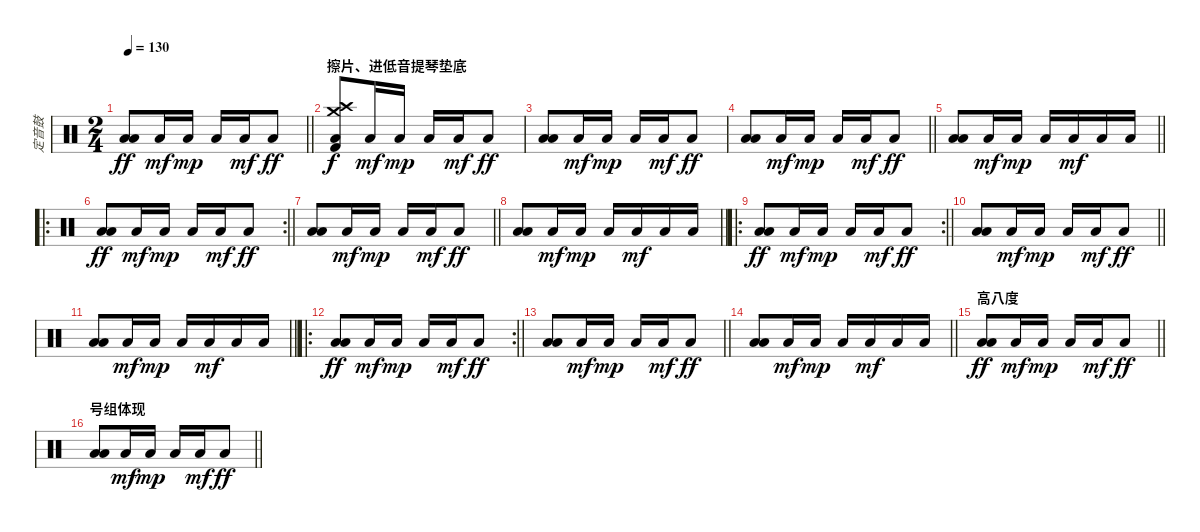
\track ("定音鼓" "定音鼓") {instrument percussion}
\staff {score}
\articulation defaults
\ts (2 4)
\tempo 130
\clef neutral
\barLineRight lightlight
\ks c
("Low Floor Tom (hit)" "Low Floor Tom (hit)").8{dy ff} "Low Floor Tom (hit)".16{dy mf} "Low Floor Tom (hit)".16{dy mp} "Low Floor Tom (hit)".16 "Low Floor Tom (hit)".16{dy mf} "Low Floor Tom (hit)".8{dy ff} |
\section ("" "擦片、进低音提琴垫底")
("Crash high (hit)" "Crash medium (hit)" "Kick (hit) 2" "Low Floor Tom (hit)").8{dy f} "Low Floor Tom (hit)".16{dy mf} "Low Floor Tom (hit)".16{dy mp} "Low Floor Tom (hit)".16 "Low Floor Tom (hit)".16{dy mf} "Low Floor Tom (hit)".8{dy ff} |
("Low Floor Tom (hit)" "Low Floor Tom (hit)").8 "Low Floor Tom (hit)".16{dy mf} "Low Floor Tom (hit)".16{dy mp} "Low Floor Tom (hit)".16 "Low Floor Tom (hit)".16{dy mf} "Low Floor Tom (hit)".8{dy ff} |
\barLineRight lightlight
("Low Floor Tom (hit)" "Low Floor Tom (hit)").8 "Low Floor Tom (hit)".16{dy mf} "Low Floor Tom (hit)".16{dy mp} "Low Floor Tom (hit)".16 "Low Floor Tom (hit)".16{dy mf} "Low Floor Tom (hit)".8{dy ff} |
\barLineRight lightlight
("Low Floor Tom (hit)" "Low Floor Tom (hit)").8 "Low Floor Tom (hit)".16{dy mf} "Low Floor Tom (hit)".16{dy mp} "Low Floor Tom (hit)".16 "Low Floor Tom (hit)".16{dy mf} "Low Floor Tom (hit)".16 "Low Floor Tom (hit)".16 |
\ro
\rc 2
\barLineRight lightlight
("Low Floor Tom (hit)" "Low Floor Tom (hit)").8{dy ff} "Low Floor Tom (hit)".16{dy mf} "Low Floor Tom (hit)".16{dy mp} "Low Floor Tom (hit)".16 "Low Floor Tom (hit)".16{dy mf} "Low Floor Tom (hit)".8{dy ff} |
\barLineRight lightlight
("Low Floor Tom (hit)" "Low Floor Tom (hit)").8 "Low Floor Tom (hit)".16{dy mf} "Low Floor Tom (hit)".16{dy mp} "Low Floor Tom (hit)".16 "Low Floor Tom (hit)".16{dy mf} "Low Floor Tom (hit)".8{dy ff} |
\barLineRight lightlight
("Low Floor Tom (hit)" "Low Floor Tom (hit)").8 "Low Floor Tom (hit)".16{dy mf} "Low Floor Tom (hit)".16{dy mp} "Low Floor Tom (hit)".16 "Low Floor Tom (hit)".16{dy mf} "Low Floor Tom (hit)".16 "Low Floor Tom (hit)".16 |
\ro
\rc 2
\barLineRight lightlight
("Low Floor Tom (hit)" "Low Floor Tom (hit)").8{dy ff} "Low Floor Tom (hit)".16{dy mf} "Low Floor Tom (hit)".16{dy mp} "Low Floor Tom (hit)".16 "Low Floor Tom (hit)".16{dy mf} "Low Floor Tom (hit)".8{dy ff} |
\barLineRight lightlight
("Low Floor Tom (hit)" "Low Floor Tom (hit)").8 "Low Floor Tom (hit)".16{dy mf} "Low Floor Tom (hit)".16{dy mp} "Low Floor Tom (hit)".16 "Low Floor Tom (hit)".16{dy mf} "Low Floor Tom (hit)".8{dy ff} |
\barLineRight lightlight
("Low Floor Tom (hit)" "Low Floor Tom (hit)").8 "Low Floor Tom (hit)".16{dy mf} "Low Floor Tom (hit)".16{dy mp} "Low Floor Tom (hit)".16 "Low Floor Tom (hit)".16{dy mf} "Low Floor Tom (hit)".16 "Low Floor Tom (hit)".16 |
\ro
\rc 2
\barLineRight lightlight
("Low Floor Tom (hit)" "Low Floor Tom (hit)").8{dy ff} "Low Floor Tom (hit)".16{dy mf} "Low Floor Tom (hit)".16{dy mp} "Low Floor Tom (hit)".16 "Low Floor Tom (hit)".16{dy mf} "Low Floor Tom (hit)".8{dy ff} |
\barLineRight lightlight
("Low Floor Tom (hit)" "Low Floor Tom (hit)").8 "Low Floor Tom (hit)".16{dy mf} "Low Floor Tom (hit)".16{dy mp} "Low Floor Tom (hit)".16 "Low Floor Tom (hit)".16{dy mf} "Low Floor Tom (hit)".8{dy ff} |
\barLineRight lightlight
("Low Floor Tom (hit)" "Low Floor Tom (hit)").8 "Low Floor Tom (hit)".16{dy mf} "Low Floor Tom (hit)".16{dy mp} "Low Floor Tom (hit)".16 "Low Floor Tom (hit)".16{dy mf} "Low Floor Tom (hit)".16 "Low Floor Tom (hit)".16 |
\section ("" "高八度")
\barLineRight lightlight
("Low Floor Tom (hit)" "Low Floor Tom (hit)").8{dy ff} "Low Floor Tom (hit)".16{dy mf} "Low Floor Tom (hit)".16{dy mp} "Low Floor Tom (hit)".16 "Low Floor Tom (hit)".16{dy mf} "Low Floor Tom (hit)".8{dy ff} |
\section ("" "号组体现")
\barLineRight lightlight
("Low Floor Tom (hit)" "Low Floor Tom (hit)").8 "Low Floor Tom (hit)".16{dy mf} "Low Floor Tom (hit)".16{dy mp} "Low Floor Tom (hit)".16 "Low Floor Tom (hit)".16{dy mf} "Low Floor Tom (hit)".8{dy ff}
